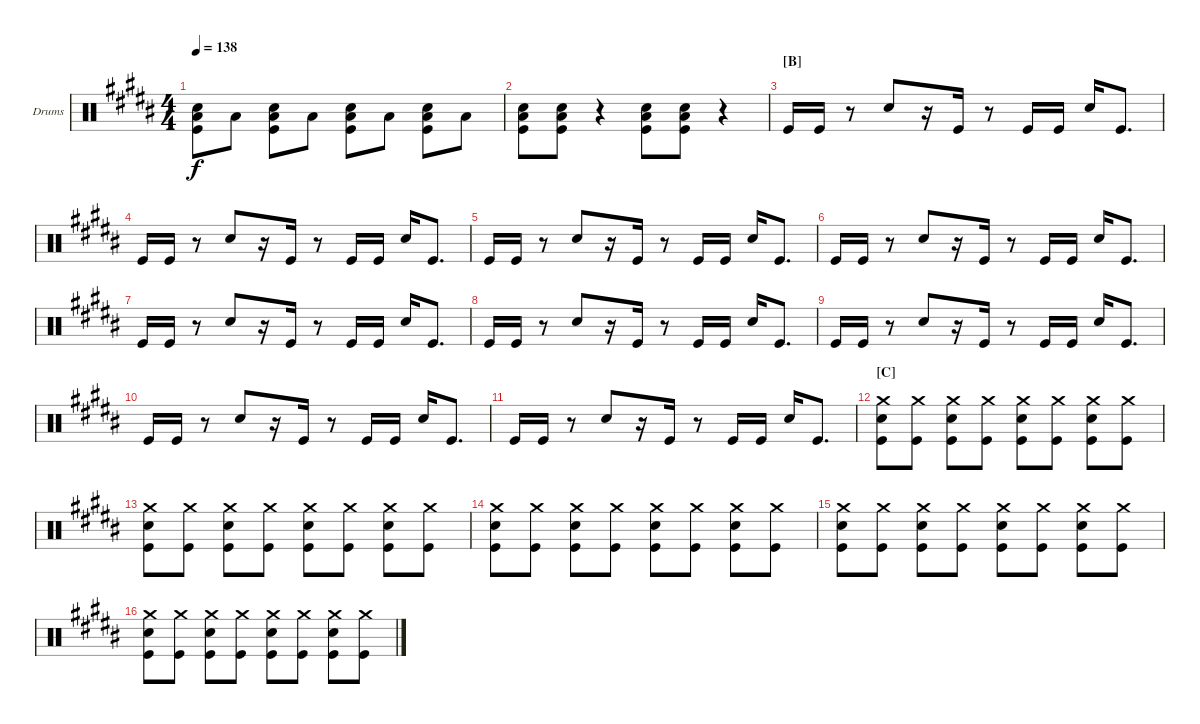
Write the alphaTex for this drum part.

\bracketExtendMode groupsimilarinstruments
\firstSystemTrackNameOrientation horizontal
\otherSystemsTrackNameOrientation horizontal
\track ("Fabrizio Moretti" "Drums") {instrument percussion}
\staff {score}
\articulation defaults
\ts (4 4)
\tempo 138
\clef neutral
\ks b
("Snare (hit) 2" "Kick (hit)" "Low Tom (hit)").8{dy f} "Low Tom (hit)".8 ("Snare (hit) 2" "Kick (hit)" "Low Tom (hit)").8 "Low Tom (hit)".8 ("Snare (hit) 2" "Kick (hit)" "Low Tom (hit)").8 "Low Tom (hit)".8 ("Snare (hit) 2" "Kick (hit)" "Low Tom (hit)").8 "Low Tom (hit)".8 |
("Snare (hit) 2" "Kick (hit)" "Low Tom (hit)").8 ("Snare (hit) 2" "Kick (hit)" "Low Tom (hit)").8 r.4 ("Snare (hit) 2" "Kick (hit)" "Low Tom (hit)").8 ("Snare (hit) 2" "Kick (hit)" "Low Tom (hit)").8 r.4 |
\section ("B" "")
"Kick (hit)".16 "Kick (hit)".16 r.8 "Snare (hit) 2".8 r.16 "Kick (hit)".16 r.8 "Kick (hit)".16 "Kick (hit)".16 "Snare (hit) 2".16 "Kick (hit)".8{d} |
"Kick (hit)".16 "Kick (hit)".16 r.8 "Snare (hit) 2".8 r.16 "Kick (hit)".16 r.8 "Kick (hit)".16 "Kick (hit)".16 "Snare (hit) 2".16 "Kick (hit)".8{d} |
"Kick (hit)".16 "Kick (hit)".16 r.8 "Snare (hit) 2".8 r.16 "Kick (hit)".16 r.8 "Kick (hit)".16 "Kick (hit)".16 "Snare (hit) 2".16 "Kick (hit)".8{d} |
"Kick (hit)".16 "Kick (hit)".16 r.8 "Snare (hit) 2".8 r.16 "Kick (hit)".16 r.8 "Kick (hit)".16 "Kick (hit)".16 "Snare (hit) 2".16 "Kick (hit)".8{d} |
"Kick (hit)".16 "Kick (hit)".16 r.8 "Snare (hit) 2".8 r.16 "Kick (hit)".16 r.8 "Kick (hit)".16 "Kick (hit)".16 "Snare (hit) 2".16 "Kick (hit)".8{d} |
"Kick (hit)".16 "Kick (hit)".16 r.8 "Snare (hit) 2".8 r.16 "Kick (hit)".16 r.8 "Kick (hit)".16 "Kick (hit)".16 "Snare (hit) 2".16 "Kick (hit)".8{d} |
"Kick (hit)".16 "Kick (hit)".16 r.8 "Snare (hit) 2".8 r.16 "Kick (hit)".16 r.8 "Kick (hit)".16 "Kick (hit)".16 "Snare (hit) 2".16 "Kick (hit)".8{d} |
"Kick (hit)".16 "Kick (hit)".16 r.8 "Snare (hit) 2".8 r.16 "Kick (hit)".16 r.8 "Kick (hit)".16 "Kick (hit)".16 "Snare (hit) 2".16 "Kick (hit)".8{d} |
"Kick (hit)".16 "Kick (hit)".16 r.8 "Snare (hit) 2".8 r.16 "Kick (hit)".16 r.8 "Kick (hit)".16 "Kick (hit)".16 "Snare (hit) 2".16 "Kick (hit)".8{d} |
\section ("C" "")
("Snare (hit) 2" "Kick (hit)" "Crash medium (hit)").8 ("Kick (hit)" "Crash medium (hit)").8 ("Snare (hit) 2" "Kick (hit)" "Crash medium (hit)").8 ("Kick (hit)" "Crash medium (hit)").8 ("Snare (hit) 2" "Kick (hit)" "Crash medium (hit)").8 ("Kick (hit)" "Crash medium (hit)").8 ("Snare (hit) 2" "Kick (hit)" "Crash medium (hit)").8 ("Kick (hit)" "Crash medium (hit)").8 |
("Snare (hit) 2" "Kick (hit)" "Crash medium (hit)").8 ("Kick (hit)" "Crash medium (hit)").8 ("Snare (hit) 2" "Kick (hit)" "Crash medium (hit)").8 ("Kick (hit)" "Crash medium (hit)").8 ("Snare (hit) 2" "Kick (hit)" "Crash medium (hit)").8 ("Kick (hit)" "Crash medium (hit)").8 ("Snare (hit) 2" "Kick (hit)" "Crash medium (hit)").8 ("Kick (hit)" "Crash medium (hit)").8 |
("Snare (hit) 2" "Kick (hit)" "Crash medium (hit)").8 ("Kick (hit)" "Crash medium (hit)").8 ("Snare (hit) 2" "Kick (hit)" "Crash medium (hit)").8 ("Kick (hit)" "Crash medium (hit)").8 ("Snare (hit) 2" "Kick (hit)" "Crash medium (hit)").8 ("Kick (hit)" "Crash medium (hit)").8 ("Snare (hit) 2" "Kick (hit)" "Crash medium (hit)").8 ("Kick (hit)" "Crash medium (hit)").8 |
("Snare (hit) 2" "Kick (hit)" "Crash medium (hit)").8 ("Kick (hit)" "Crash medium (hit)").8 ("Snare (hit) 2" "Kick (hit)" "Crash medium (hit)").8 ("Kick (hit)" "Crash medium (hit)").8 ("Snare (hit) 2" "Kick (hit)" "Crash medium (hit)").8 ("Kick (hit)" "Crash medium (hit)").8 ("Snare (hit) 2" "Kick (hit)" "Crash medium (hit)").8 ("Kick (hit)" "Crash medium (hit)").8 |
("Snare (hit) 2" "Kick (hit)" "Crash medium (hit)").8 ("Kick (hit)" "Crash medium (hit)").8 ("Snare (hit) 2" "Kick (hit)" "Crash medium (hit)").8 ("Kick (hit)" "Crash medium (hit)").8 ("Snare (hit) 2" "Kick (hit)" "Crash medium (hit)").8 ("Kick (hit)" "Crash medium (hit)").8 ("Snare (hit) 2" "Kick (hit)" "Crash medium (hit)").8 ("Kick (hit)" "Crash medium (hit)").8
